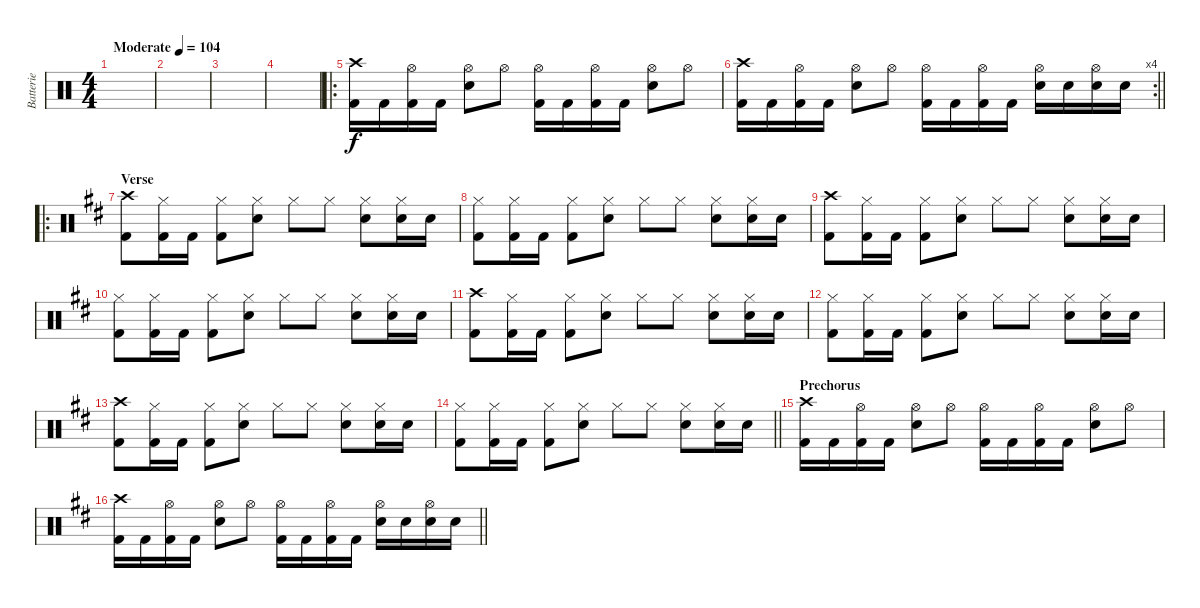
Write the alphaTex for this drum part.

\track ("Batterie" "Batterie") {instrument percussion}
\staff {score}
\articulation defaults
\ts (4 4)
\tempo (104 "Moderate")
\clef neutral
\ks c
|
|
|
|
\ro
("Crash high (hit)" "Kick (hit) 2").16 "Kick (hit) 2".16 ("Hi-Hat (open)" "Kick (hit) 2").16 "Kick (hit) 2".16 ("Hi-Hat (open)" "Snare (hit) 2").8 "Hi-Hat (open)".8 ("Hi-Hat (open)" "Kick (hit) 2").16 "Kick (hit) 2".16 ("Hi-Hat (open)" "Kick (hit) 2").16 "Kick (hit) 2".16 ("Hi-Hat (open)" "Snare (hit) 2").8 "Hi-Hat (open)".8 |
\rc 4
\barLineRight lightlight
("Crash high (hit)" "Kick (hit) 2").16 "Kick (hit) 2".16 ("Hi-Hat (open)" "Kick (hit) 2").16 "Kick (hit) 2".16 ("Hi-Hat (open)" "Snare (hit) 2").8 "Hi-Hat (open)".8 ("Hi-Hat (open)" "Kick (hit) 2").16 "Kick (hit) 2".16 ("Hi-Hat (open)" "Kick (hit) 2").16 "Kick (hit) 2".16 ("Hi-Hat (open)" "Snare (hit) 2").16 "Snare (hit) 2".16 ("Hi-Hat (open)" "Snare (hit) 2").16 "Snare (hit) 2".16 |
\ro
\section ("" "Verse")
\ks d
("Crash high (hit)" "Kick (hit) 2").8 ("Hi-Hat (closed)" "Kick (hit) 2").16 "Kick (hit) 2".16 ("Hi-Hat (closed)" "Kick (hit) 2").8 ("Hi-Hat (closed)" "Electric Snare (hit)").8 "Hi-Hat (closed)".8 "Hi-Hat (closed)".8 ("Hi-Hat (closed)" "Electric Snare (hit)").8 ("Hi-Hat (closed)" "Electric Snare (hit)").16 "Electric Snare (hit)".16 |
("Hi-Hat (closed)" "Kick (hit) 2").8 ("Hi-Hat (closed)" "Kick (hit) 2").16 "Kick (hit) 2".16 ("Hi-Hat (closed)" "Kick (hit) 2").8 ("Hi-Hat (closed)" "Snare (hit) 2").8 "Hi-Hat (closed)".8 "Hi-Hat (closed)".8 ("Hi-Hat (closed)" "Snare (hit) 2").8 ("Hi-Hat (closed)" "Snare (hit) 2").16 "Snare (hit) 2".16 |
("Crash high (hit)" "Kick (hit) 2").8 ("Hi-Hat (closed)" "Kick (hit) 2").16 "Kick (hit) 2".16 ("Hi-Hat (closed)" "Kick (hit) 2").8 ("Hi-Hat (closed)" "Snare (hit) 2").8 "Hi-Hat (closed)".8 "Hi-Hat (closed)".8 ("Hi-Hat (closed)" "Snare (hit) 2").8 ("Hi-Hat (closed)" "Snare (hit) 2").16 "Snare (hit) 2".16 |
("Hi-Hat (closed)" "Kick (hit) 2").8 ("Hi-Hat (closed)" "Kick (hit) 2").16 "Kick (hit) 2".16 ("Hi-Hat (closed)" "Kick (hit) 2").8 ("Hi-Hat (closed)" "Snare (hit) 2").8 "Hi-Hat (closed)".8 "Hi-Hat (closed)".8 ("Hi-Hat (closed)" "Snare (hit) 2").8 ("Hi-Hat (closed)" "Snare (hit) 2").16 "Snare (hit) 2".16 |
("Crash high (hit)" "Kick (hit) 2").8 ("Hi-Hat (closed)" "Kick (hit) 2").16 "Kick (hit) 2".16 ("Hi-Hat (closed)" "Kick (hit) 2").8 ("Hi-Hat (closed)" "Snare (hit) 2").8 "Hi-Hat (closed)".8 "Hi-Hat (closed)".8 ("Hi-Hat (closed)" "Snare (hit) 2").8 ("Hi-Hat (closed)" "Snare (hit) 2").16 "Snare (hit) 2".16 |
("Hi-Hat (closed)" "Kick (hit) 2").8 ("Hi-Hat (closed)" "Kick (hit) 2").16 "Kick (hit) 2".16 ("Hi-Hat (closed)" "Kick (hit) 2").8 ("Hi-Hat (closed)" "Snare (hit) 2").8 "Hi-Hat (closed)".8 "Hi-Hat (closed)".8 ("Hi-Hat (closed)" "Snare (hit) 2").8 ("Hi-Hat (closed)" "Snare (hit) 2").16 "Snare (hit) 2".16 |
("Crash high (hit)" "Kick (hit) 2").8 ("Hi-Hat (closed)" "Kick (hit) 2").16 "Kick (hit) 2".16 ("Hi-Hat (closed)" "Kick (hit) 2").8 ("Hi-Hat (closed)" "Snare (hit) 2").8 "Hi-Hat (closed)".8 "Hi-Hat (closed)".8 ("Hi-Hat (closed)" "Snare (hit) 2").8 ("Hi-Hat (closed)" "Snare (hit) 2").16 "Snare (hit) 2".16 |
\barLineRight lightlight
("Hi-Hat (closed)" "Kick (hit) 2").8 ("Hi-Hat (closed)" "Kick (hit) 2").16 "Kick (hit) 2".16 ("Hi-Hat (closed)" "Kick (hit) 2").8 ("Hi-Hat (closed)" "Snare (hit) 2").8 "Hi-Hat (closed)".8 "Hi-Hat (closed)".8 ("Hi-Hat (closed)" "Snare (hit) 2").8 ("Hi-Hat (closed)" "Snare (hit) 2").16 "Snare (hit) 2".16 |
\section ("" "Prechorus")
("Crash high (hit)" "Kick (hit) 2").16 "Kick (hit) 2".16 ("Hi-Hat (open)" "Kick (hit) 2").16 "Kick (hit) 2".16 ("Hi-Hat (open)" "Snare (hit) 2").8 "Hi-Hat (open)".8 ("Hi-Hat (open)" "Kick (hit) 2").16 "Kick (hit) 2".16 ("Hi-Hat (open)" "Kick (hit) 2").16 "Kick (hit) 2".16 ("Hi-Hat (open)" "Snare (hit) 2").8 "Hi-Hat (open)".8 |
\barLineRight lightlight
("Crash high (hit)" "Kick (hit) 2").16 "Kick (hit) 2".16 ("Hi-Hat (open)" "Kick (hit) 2").16 "Kick (hit) 2".16 ("Hi-Hat (open)" "Snare (hit) 2").8 "Hi-Hat (open)".8 ("Hi-Hat (open)" "Kick (hit) 2").16 "Kick (hit) 2".16 ("Hi-Hat (open)" "Kick (hit) 2").16 "Kick (hit) 2".16 ("Hi-Hat (open)" "Snare (hit) 2").16 "Snare (hit) 2".16 ("Hi-Hat (open)" "Snare (hit) 2").16 "Snare (hit) 2".16
